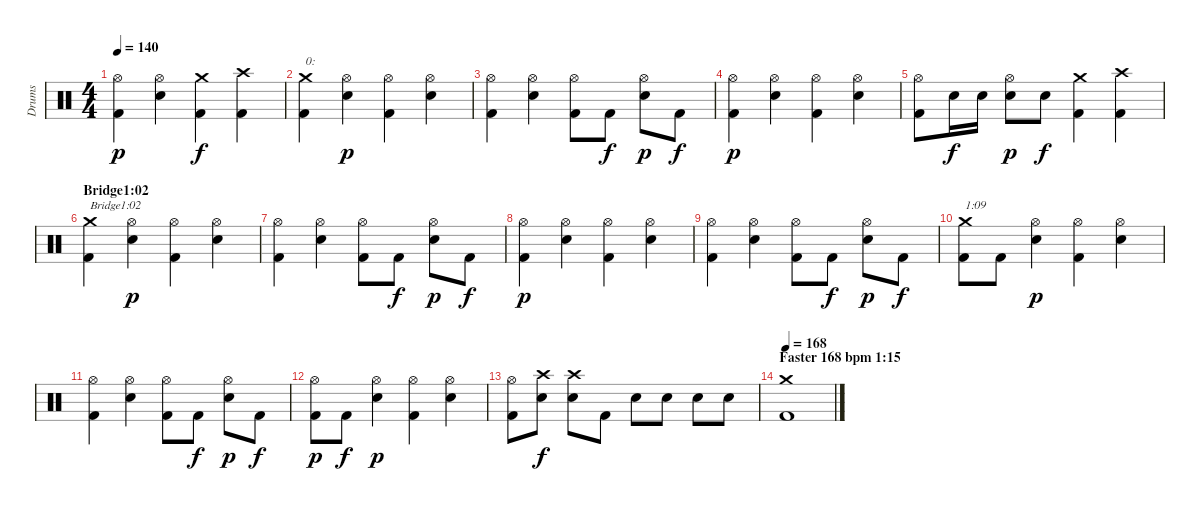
\track ("Drums" "Drums") {instrument percussion}
\staff {score}
\articulation defaults
\ts (4 4)
\tempo 140
\clef neutral
\ks c
("Kick (hit) 2" "Hi-Hat (open)").4{dy p} ("Electric Snare (hit)" "Hi-Hat (open)").4 ("Kick (hit) 2" "Crash medium (hit)").4{dy f} ("Kick (hit) 2" "Crash high (hit)").4 |
("Kick (hit) 2" "Crash medium (hit)").4{txt "0:"} ("Electric Snare (hit)" "Hi-Hat (open)").4{dy p} ("Kick (hit) 2" "Hi-Hat (open)").4 ("Electric Snare (hit)" "Hi-Hat (open)").4 |
("Kick (hit) 2" "Hi-Hat (open)").4 ("Electric Snare (hit)" "Hi-Hat (open)").4 ("Kick (hit) 2" "Hi-Hat (open)").8 "Kick (hit) 2".8{dy f} ("Electric Snare (hit)" "Hi-Hat (open)").8{dy p} "Kick (hit) 2".8{dy f} |
("Kick (hit) 2" "Hi-Hat (open)").4{dy p} ("Electric Snare (hit)" "Hi-Hat (open)").4 ("Kick (hit) 2" "Hi-Hat (open)").4 ("Electric Snare (hit)" "Hi-Hat (open)").4 |
("Kick (hit) 2" "Hi-Hat (open)").8 "Electric Snare (hit)".16{dy f} "Electric Snare (hit)".16 ("Electric Snare (hit)" "Hi-Hat (open)").8{dy p} "Electric Snare (hit)".8{dy f} ("Kick (hit) 2" "Crash medium (hit)").4 ("Kick (hit) 2" "Crash high (hit)").4 |
\section ("" "Bridge1:02")
("Kick (hit) 2" "Crash medium (hit)").4{txt "Bridge1:02"} ("Electric Snare (hit)" "Hi-Hat (open)").4{dy p} ("Kick (hit) 2" "Hi-Hat (open)").4 ("Electric Snare (hit)" "Hi-Hat (open)").4 |
("Kick (hit) 2" "Hi-Hat (open)").4 ("Electric Snare (hit)" "Hi-Hat (open)").4 ("Kick (hit) 2" "Hi-Hat (open)").8 "Kick (hit) 2".8{dy f} ("Electric Snare (hit)" "Hi-Hat (open)").8{dy p} "Kick (hit) 2".8{dy f} |
("Kick (hit) 2" "Hi-Hat (open)").4{dy p} ("Electric Snare (hit)" "Hi-Hat (open)").4 ("Kick (hit) 2" "Hi-Hat (open)").4 ("Electric Snare (hit)" "Hi-Hat (open)").4 |
("Kick (hit) 2" "Hi-Hat (open)").4 ("Electric Snare (hit)" "Hi-Hat (open)").4 ("Kick (hit) 2" "Hi-Hat (open)").8 "Kick (hit) 2".8{dy f} ("Electric Snare (hit)" "Hi-Hat (open)").8{dy p} "Kick (hit) 2".8{dy f} |
("Kick (hit) 2" "Crash medium (hit)").8{txt "1:09"} "Kick (hit) 2".8 ("Electric Snare (hit)" "Hi-Hat (open)").4{dy p} ("Kick (hit) 2" "Hi-Hat (open)").4 ("Electric Snare (hit)" "Hi-Hat (open)").4 |
("Kick (hit) 2" "Hi-Hat (open)").4 ("Electric Snare (hit)" "Hi-Hat (open)").4 ("Kick (hit) 2" "Hi-Hat (open)").8 "Kick (hit) 2".8{dy f} ("Electric Snare (hit)" "Hi-Hat (open)").8{dy p} "Kick (hit) 2".8{dy f} |
("Kick (hit) 2" "Hi-Hat (open)").8{dy p} "Kick (hit) 2".8{dy f} ("Electric Snare (hit)" "Hi-Hat (open)").4{dy p} ("Kick (hit) 2" "Hi-Hat (open)").4 ("Electric Snare (hit)" "Hi-Hat (open)").4 |
("Kick (hit) 2" "Hi-Hat (open)").8 ("Electric Snare (hit)" "Crash high (hit)").8{dy f} ("Electric Snare (hit)" "Crash high (hit)").8 "Kick (hit) 2".8 "Electric Snare (hit)".8 "Electric Snare (hit)".8 "Electric Snare (hit)".8 "Electric Snare (hit)".8 |
\section ("" "Faster 168 bpm 1:15")
\tempo 168
("Kick (hit) 2" "Crash medium (hit)").1
